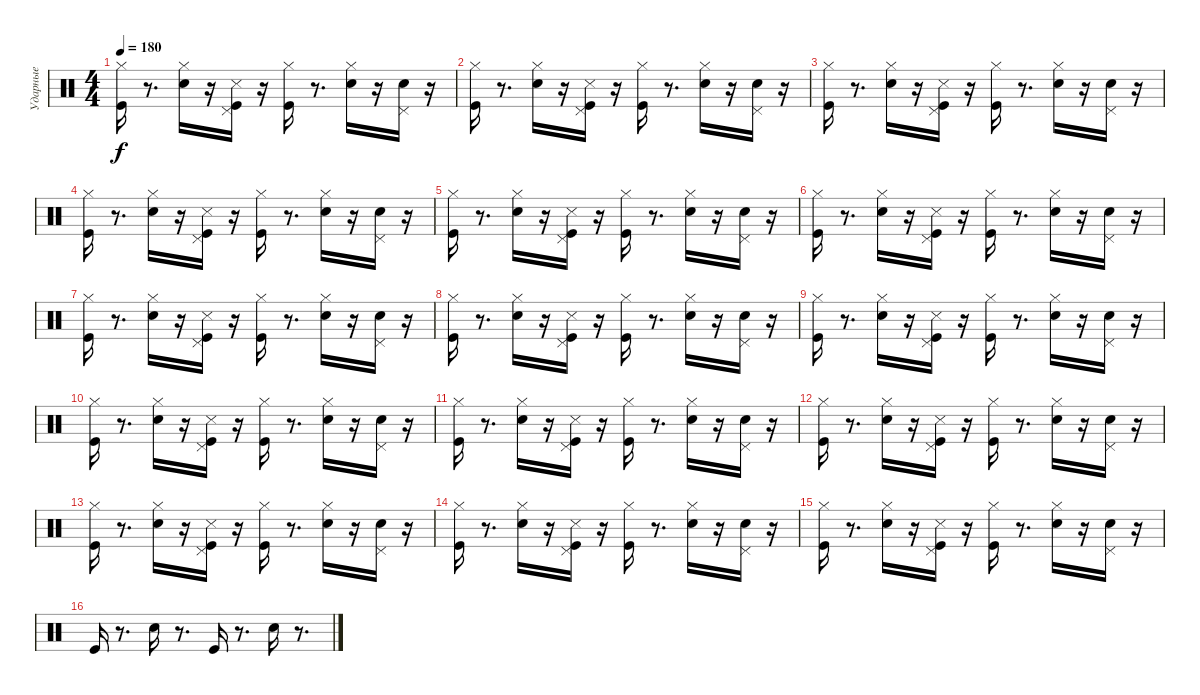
\track ("Ударные" "Ударные") {instrument percussion}
\staff {score}
\articulation defaults
\ts (4 4)
\tempo 180
\clef neutral
\ks c
("Hi-Hat (closed)" "Kick (hit)").16{dy f} r.8{d} ("Hi-Hat (closed)" "Snare (hit) 2").16 r.16 ("Snare (side stick) 3" "Kick (hit)" "Pedal Hi-Hat (hit)").16 r.16 ("Hi-Hat (closed)" "Kick (hit)").16 r.8{d} ("Hi-Hat (closed)" "Snare (hit) 2").16 r.16 ("Snare (hit) 2" "Pedal Hi-Hat (hit)").16 r.16 |
("Hi-Hat (closed)" "Kick (hit)").16 r.8{d} ("Hi-Hat (closed)" "Snare (hit) 2").16 r.16 ("Snare (side stick) 3" "Kick (hit)" "Pedal Hi-Hat (hit)").16 r.16 ("Hi-Hat (closed)" "Kick (hit)").16 r.8{d} ("Hi-Hat (closed)" "Snare (hit) 2").16 r.16 ("Snare (hit) 2" "Pedal Hi-Hat (hit)").16 r.16 |
("Hi-Hat (closed)" "Kick (hit)").16 r.8{d} ("Hi-Hat (closed)" "Snare (hit) 2").16 r.16 ("Snare (side stick) 3" "Kick (hit)" "Pedal Hi-Hat (hit)").16 r.16 ("Hi-Hat (closed)" "Kick (hit)").16 r.8{d} ("Hi-Hat (closed)" "Snare (hit) 2").16 r.16 ("Snare (hit) 2" "Pedal Hi-Hat (hit)").16 r.16 |
("Hi-Hat (closed)" "Kick (hit)").16 r.8{d} ("Hi-Hat (closed)" "Snare (hit) 2").16 r.16 ("Snare (side stick) 3" "Kick (hit)" "Pedal Hi-Hat (hit)").16 r.16 ("Hi-Hat (closed)" "Kick (hit)").16 r.8{d} ("Hi-Hat (closed)" "Snare (hit) 2").16 r.16 ("Snare (hit) 2" "Pedal Hi-Hat (hit)").16 r.16 |
("Hi-Hat (closed)" "Kick (hit)").16 r.8{d} ("Hi-Hat (closed)" "Snare (hit) 2").16 r.16 ("Snare (side stick) 3" "Kick (hit)" "Pedal Hi-Hat (hit)").16 r.16 ("Hi-Hat (closed)" "Kick (hit)").16 r.8{d} ("Hi-Hat (closed)" "Snare (hit) 2").16 r.16 ("Snare (hit) 2" "Pedal Hi-Hat (hit)").16 r.16 |
("Hi-Hat (closed)" "Kick (hit)").16 r.8{d} ("Hi-Hat (closed)" "Snare (hit) 2").16 r.16 ("Snare (side stick) 3" "Kick (hit)" "Pedal Hi-Hat (hit)").16 r.16 ("Hi-Hat (closed)" "Kick (hit)").16 r.8{d} ("Hi-Hat (closed)" "Snare (hit) 2").16 r.16 ("Snare (hit) 2" "Pedal Hi-Hat (hit)").16 r.16 |
("Hi-Hat (closed)" "Kick (hit)").16 r.8{d} ("Hi-Hat (closed)" "Snare (hit) 2").16 r.16 ("Snare (side stick) 3" "Kick (hit)" "Pedal Hi-Hat (hit)").16 r.16 ("Hi-Hat (closed)" "Kick (hit)").16 r.8{d} ("Hi-Hat (closed)" "Snare (hit) 2").16 r.16 ("Snare (hit) 2" "Pedal Hi-Hat (hit)").16 r.16 |
("Hi-Hat (closed)" "Kick (hit)").16 r.8{d} ("Hi-Hat (closed)" "Snare (hit) 2").16 r.16 ("Snare (side stick) 3" "Kick (hit)" "Pedal Hi-Hat (hit)").16 r.16 ("Hi-Hat (closed)" "Kick (hit)").16 r.8{d} ("Hi-Hat (closed)" "Snare (hit) 2").16 r.16 ("Snare (hit) 2" "Pedal Hi-Hat (hit)").16 r.16 |
("Hi-Hat (closed)" "Kick (hit)").16 r.8{d} ("Hi-Hat (closed)" "Snare (hit) 2").16 r.16 ("Snare (side stick) 3" "Kick (hit)" "Pedal Hi-Hat (hit)").16 r.16 ("Hi-Hat (closed)" "Kick (hit)").16 r.8{d} ("Hi-Hat (closed)" "Snare (hit) 2").16 r.16 ("Snare (hit) 2" "Pedal Hi-Hat (hit)").16 r.16 |
("Hi-Hat (closed)" "Kick (hit)").16 r.8{d} ("Hi-Hat (closed)" "Snare (hit) 2").16 r.16 ("Snare (side stick) 3" "Kick (hit)" "Pedal Hi-Hat (hit)").16 r.16 ("Hi-Hat (closed)" "Kick (hit)").16 r.8{d} ("Hi-Hat (closed)" "Snare (hit) 2").16 r.16 ("Snare (hit) 2" "Pedal Hi-Hat (hit)").16 r.16 |
("Hi-Hat (closed)" "Kick (hit)").16 r.8{d} ("Hi-Hat (closed)" "Snare (hit) 2").16 r.16 ("Snare (side stick) 3" "Kick (hit)" "Pedal Hi-Hat (hit)").16 r.16 ("Hi-Hat (closed)" "Kick (hit)").16 r.8{d} ("Hi-Hat (closed)" "Snare (hit) 2").16 r.16 ("Snare (hit) 2" "Pedal Hi-Hat (hit)").16 r.16 |
("Hi-Hat (closed)" "Kick (hit)").16 r.8{d} ("Hi-Hat (closed)" "Snare (hit) 2").16 r.16 ("Snare (side stick) 3" "Kick (hit)" "Pedal Hi-Hat (hit)").16 r.16 ("Hi-Hat (closed)" "Kick (hit)").16 r.8{d} ("Hi-Hat (closed)" "Snare (hit) 2").16 r.16 ("Snare (hit) 2" "Pedal Hi-Hat (hit)").16 r.16 |
("Hi-Hat (closed)" "Kick (hit)").16 r.8{d} ("Hi-Hat (closed)" "Snare (hit) 2").16 r.16 ("Snare (side stick) 3" "Kick (hit)" "Pedal Hi-Hat (hit)").16 r.16 ("Hi-Hat (closed)" "Kick (hit)").16 r.8{d} ("Hi-Hat (closed)" "Snare (hit) 2").16 r.16 ("Snare (hit) 2" "Pedal Hi-Hat (hit)").16 r.16 |
("Hi-Hat (closed)" "Kick (hit)").16 r.8{d} ("Hi-Hat (closed)" "Snare (hit) 2").16 r.16 ("Snare (side stick) 3" "Kick (hit)" "Pedal Hi-Hat (hit)").16 r.16 ("Hi-Hat (closed)" "Kick (hit)").16 r.8{d} ("Hi-Hat (closed)" "Snare (hit) 2").16 r.16 ("Snare (hit) 2" "Pedal Hi-Hat (hit)").16 r.16 |
("Hi-Hat (closed)" "Kick (hit)").16 r.8{d} ("Hi-Hat (closed)" "Snare (hit) 2").16 r.16 ("Snare (side stick) 3" "Kick (hit)" "Pedal Hi-Hat (hit)").16 r.16 ("Hi-Hat (closed)" "Kick (hit)").16 r.8{d} ("Hi-Hat (closed)" "Snare (hit) 2").16 r.16 ("Snare (hit) 2" "Pedal Hi-Hat (hit)").16 r.16 |
"Kick (hit)".16 r.8{d} "Snare (hit) 2".16 r.8{d} "Kick (hit)".16 r.8{d} "Snare (hit) 2".16 r.8{d}
